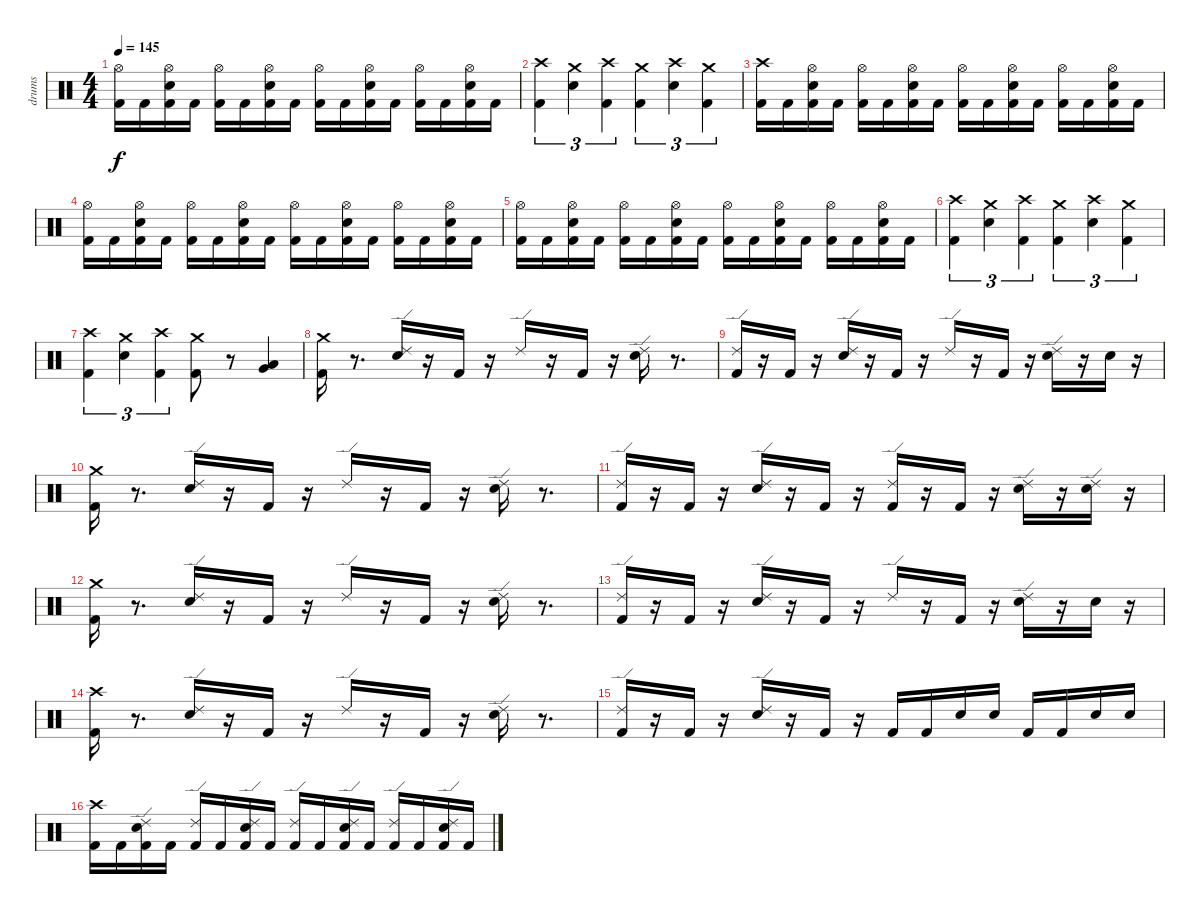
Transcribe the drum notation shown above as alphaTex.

\track ("drums" "drums") {instrument percussion}
\staff {score}
\articulation defaults
\ts (4 4)
\tempo 145
\clef neutral
\ks c
("Hi-Hat (open)" "Kick (hit) 2").16{dy f} "Kick (hit) 2".16 ("Hi-Hat (open)" "Kick (hit) 2" "Snare (hit) 2").16 "Kick (hit) 2".16 ("Hi-Hat (open)" "Kick (hit) 2").16 "Kick (hit) 2".16 ("Hi-Hat (open)" "Kick (hit) 2" "Snare (hit) 2").16 "Kick (hit) 2".16 ("Hi-Hat (open)" "Kick (hit) 2").16 "Kick (hit) 2".16 ("Hi-Hat (open)" "Kick (hit) 2" "Snare (hit) 2").16 "Kick (hit) 2".16 ("Hi-Hat (open)" "Kick (hit) 2").16 "Kick (hit) 2".16 ("Hi-Hat (open)" "Kick (hit) 2" "Snare (hit) 2").16 "Kick (hit) 2".16 |
("Crash high (hit)" "Kick (hit) 2").4{tu (3 2)} ("Crash medium (hit)" "Snare (hit) 2").4{tu (3 2)} ("Crash high (hit)" "Kick (hit) 2").4{tu (3 2)} ("Crash medium (hit)" "Kick (hit) 2").4{tu (3 2)} ("Snare (hit) 2" "Crash high (hit)").4{tu (3 2)} ("Crash medium (hit)" "Kick (hit) 2").4{tu (3 2)} |
("Crash high (hit)" "Kick (hit) 2").16 "Kick (hit) 2".16 ("Hi-Hat (open)" "Kick (hit) 2" "Snare (hit) 2").16 "Kick (hit) 2".16 ("Hi-Hat (open)" "Kick (hit) 2").16 "Kick (hit) 2".16 ("Hi-Hat (open)" "Kick (hit) 2" "Snare (hit) 2").16 "Kick (hit) 2".16 ("Hi-Hat (open)" "Kick (hit) 2").16 "Kick (hit) 2".16 ("Hi-Hat (open)" "Kick (hit) 2" "Snare (hit) 2").16 "Kick (hit) 2".16 ("Hi-Hat (open)" "Kick (hit) 2").16 "Kick (hit) 2".16 ("Hi-Hat (open)" "Kick (hit) 2" "Snare (hit) 2").16 "Kick (hit) 2".16 |
("Hi-Hat (open)" "Kick (hit) 2").16 "Kick (hit) 2".16 ("Hi-Hat (open)" "Kick (hit) 2" "Snare (hit) 2").16 "Kick (hit) 2".16 ("Hi-Hat (open)" "Kick (hit) 2").16 "Kick (hit) 2".16 ("Hi-Hat (open)" "Kick (hit) 2" "Snare (hit) 2").16 "Kick (hit) 2".16 ("Hi-Hat (open)" "Kick (hit) 2").16 "Kick (hit) 2".16 ("Hi-Hat (open)" "Kick (hit) 2" "Snare (hit) 2").16 "Kick (hit) 2".16 ("Hi-Hat (open)" "Kick (hit) 2").16 "Kick (hit) 2".16 ("Hi-Hat (open)" "Kick (hit) 2" "Snare (hit) 2").16 "Kick (hit) 2".16 |
("Hi-Hat (open)" "Kick (hit) 2").16 "Kick (hit) 2".16 ("Hi-Hat (open)" "Kick (hit) 2" "Snare (hit) 2").16 "Kick (hit) 2".16 ("Hi-Hat (open)" "Kick (hit) 2").16 "Kick (hit) 2".16 ("Hi-Hat (open)" "Kick (hit) 2" "Snare (hit) 2").16 "Kick (hit) 2".16 ("Hi-Hat (open)" "Kick (hit) 2").16 "Kick (hit) 2".16 ("Hi-Hat (open)" "Kick (hit) 2" "Snare (hit) 2").16 "Kick (hit) 2".16 ("Hi-Hat (open)" "Kick (hit) 2").16 "Kick (hit) 2".16 ("Hi-Hat (open)" "Kick (hit) 2" "Snare (hit) 2").16 "Kick (hit) 2".16 |
("Crash high (hit)" "Kick (hit) 2").4{tu (3 2)} ("Crash medium (hit)" "Snare (hit) 2").4{tu (3 2)} ("Crash high (hit)" "Kick (hit) 2").4{tu (3 2)} ("Crash medium (hit)" "Kick (hit) 2").4{tu (3 2)} ("Snare (hit) 2" "Crash high (hit)").4{tu (3 2)} ("Crash medium (hit)" "Kick (hit) 2").4{tu (3 2)} |
("Crash high (hit)" "Kick (hit) 2").4{tu (3 2)} ("Crash medium (hit)" "Snare (hit) 2").4{tu (3 2)} ("Crash high (hit)" "Kick (hit) 2").4{tu (3 2)} ("Crash medium (hit)" "Kick (hit) 2").8 r.8 ("Low Tom (hit)" "Very Low Tom (hit)").4 |
("Crash medium (hit)" "Kick (hit) 2").16 r.8{d} ("Ride (edge) 2" "Snare (hit) 2").16 r.16 "Kick (hit) 2".16 r.16 "Ride (edge) 2".16 r.16 "Kick (hit) 2".16 r.16 ("Ride (edge) 2" "Snare (hit) 2").16 r.8{d} |
("Ride (edge) 2" "Kick (hit) 2").16 r.16 "Kick (hit) 2".16 r.16 ("Ride (edge) 2" "Snare (hit) 2").16 r.16 "Kick (hit) 2".16 r.16 "Ride (edge) 2".16 r.16 "Kick (hit) 2".16 r.16 ("Ride (edge) 2" "Snare (hit) 2").16 r.16 "Snare (hit) 2".16 r.16 |
("Crash medium (hit)" "Kick (hit) 2").16 r.8{d} ("Ride (edge) 2" "Snare (hit) 2").16 r.16 "Kick (hit) 2".16 r.16 "Ride (edge) 2".16 r.16 "Kick (hit) 2".16 r.16 ("Ride (edge) 2" "Snare (hit) 2").16 r.8{d} |
("Ride (edge) 2" "Kick (hit) 2").16 r.16 "Kick (hit) 2".16 r.16 ("Ride (edge) 2" "Snare (hit) 2").16 r.16 "Kick (hit) 2".16 r.16 ("Kick (hit) 2" "Ride (edge) 2").16 r.16 "Kick (hit) 2".16 r.16 ("Ride (edge) 2" "Snare (hit) 2").16 r.16 ("Ride (edge) 2" "Snare (hit) 2").16 r.16 |
("Crash medium (hit)" "Kick (hit) 2").16 r.8{d} ("Ride (edge) 2" "Snare (hit) 2").16 r.16 "Kick (hit) 2".16 r.16 "Ride (edge) 2".16 r.16 "Kick (hit) 2".16 r.16 ("Ride (edge) 2" "Snare (hit) 2").16 r.8{d} |
("Ride (edge) 2" "Kick (hit) 2").16 r.16 "Kick (hit) 2".16 r.16 ("Ride (edge) 2" "Snare (hit) 2").16 r.16 "Kick (hit) 2".16 r.16 "Ride (edge) 2".16 r.16 "Kick (hit) 2".16 r.16 ("Ride (edge) 2" "Snare (hit) 2").16 r.16 "Snare (hit) 2".16 r.16 |
("Crash high (hit)" "Kick (hit) 2").16 r.8{d} ("Ride (edge) 2" "Snare (hit) 2").16 r.16 "Kick (hit) 2".16 r.16 "Ride (edge) 2".16 r.16 "Kick (hit) 2".16 r.16 ("Ride (edge) 2" "Snare (hit) 2").16 r.8{d} |
("Ride (edge) 2" "Kick (hit) 2").16 r.16 "Kick (hit) 2".16 r.16 ("Ride (edge) 2" "Snare (hit) 2").16 r.16 "Kick (hit) 2".16 r.16 "Kick (hit) 2".16 "Kick (hit) 2".16 "Snare (hit) 2".16 "Snare (hit) 2".16 "Kick (hit) 2".16 "Kick (hit) 2".16 "Snare (hit) 2".16 "Snare (hit) 2".16 |
("Crash high (hit)" "Kick (hit) 2").16 "Kick (hit) 2".16 ("Kick (hit) 2" "Ride (edge) 2" "Snare (hit) 2").16 "Kick (hit) 2".16 ("Ride (edge) 2" "Kick (hit) 2").16 "Kick (hit) 2".16 ("Kick (hit) 2" "Ride (edge) 2" "Snare (hit) 2").16 "Kick (hit) 2".16 ("Ride (edge) 2" "Kick (hit) 2").16 "Kick (hit) 2".16 ("Kick (hit) 2" "Ride (edge) 2" "Snare (hit) 2").16 "Kick (hit) 2".16 ("Ride (edge) 2" "Kick (hit) 2").16 "Kick (hit) 2".16 ("Kick (hit) 2" "Ride (edge) 2" "Snare (hit) 2").16 "Kick (hit) 2".16
